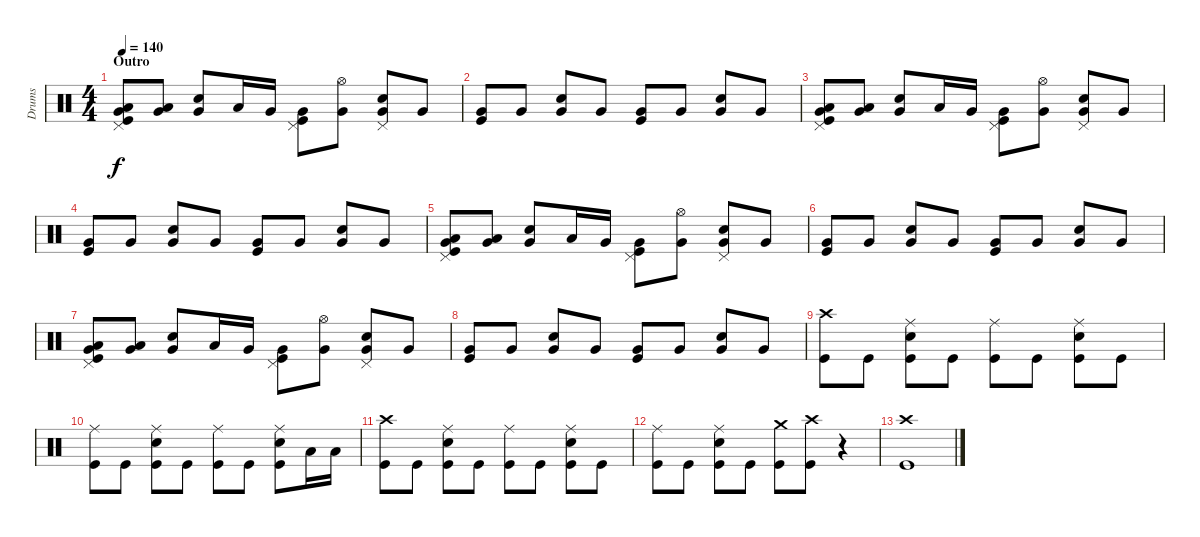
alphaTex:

\track ("Drums" "Drums") {instrument percussion}
\staff {score}
\articulation defaults
\ts (4 4)
\section ("" "Outro")
\tempo 140
\clef neutral
\ks c
("Pedal Hi-Hat (hit)" "Very Low Tom (hit)" "Low Tom (hit)" "Kick (hit)").8{dy f} ("Very Low Tom (hit)" "Low Tom (hit)").8 ("Very Low Tom (hit)" "Electric Snare (hit)").8 "Low Tom (hit)".16 "Very Low Tom (hit)".16 ("Pedal Hi-Hat (hit)" "Very Low Tom (hit)" "Kick (hit)").8 ("Hi-Hat (open)" "Very Low Tom (hit)").8 ("Pedal Hi-Hat (hit)" "Very Low Tom (hit)" "Electric Snare (hit)").8 "Very Low Tom (hit)".8 |
("Very Low Tom (hit)" "Kick (hit)").8 "Very Low Tom (hit)".8 ("Very Low Tom (hit)" "Snare (hit) 2").8 "Very Low Tom (hit)".8 ("Very Low Tom (hit)" "Kick (hit)").8 "Very Low Tom (hit)".8 ("Very Low Tom (hit)" "Snare (hit) 2").8 "Very Low Tom (hit)".8 |
("Pedal Hi-Hat (hit)" "Very Low Tom (hit)" "Low Tom (hit)" "Kick (hit)").8 ("Very Low Tom (hit)" "Low Tom (hit)").8 ("Very Low Tom (hit)" "Electric Snare (hit)").8 "Low Tom (hit)".16 "Very Low Tom (hit)".16 ("Pedal Hi-Hat (hit)" "Very Low Tom (hit)" "Kick (hit)").8 ("Hi-Hat (open)" "Very Low Tom (hit)").8 ("Pedal Hi-Hat (hit)" "Very Low Tom (hit)" "Electric Snare (hit)").8 "Very Low Tom (hit)".8 |
("Very Low Tom (hit)" "Kick (hit)").8 "Very Low Tom (hit)".8 ("Very Low Tom (hit)" "Snare (hit) 2").8 "Very Low Tom (hit)".8 ("Very Low Tom (hit)" "Kick (hit)").8 "Very Low Tom (hit)".8 ("Very Low Tom (hit)" "Snare (hit) 2").8 "Very Low Tom (hit)".8 |
("Pedal Hi-Hat (hit)" "Very Low Tom (hit)" "Low Tom (hit)" "Kick (hit)").8 ("Very Low Tom (hit)" "Low Tom (hit)").8 ("Very Low Tom (hit)" "Electric Snare (hit)").8 "Low Tom (hit)".16 "Very Low Tom (hit)".16 ("Pedal Hi-Hat (hit)" "Very Low Tom (hit)" "Kick (hit)").8 ("Hi-Hat (open)" "Very Low Tom (hit)").8 ("Pedal Hi-Hat (hit)" "Very Low Tom (hit)" "Electric Snare (hit)").8 "Very Low Tom (hit)".8 |
("Very Low Tom (hit)" "Kick (hit)").8 "Very Low Tom (hit)".8 ("Very Low Tom (hit)" "Snare (hit) 2").8 "Very Low Tom (hit)".8 ("Very Low Tom (hit)" "Kick (hit)").8 "Very Low Tom (hit)".8 ("Very Low Tom (hit)" "Snare (hit) 2").8 "Very Low Tom (hit)".8 |
("Pedal Hi-Hat (hit)" "Very Low Tom (hit)" "Low Tom (hit)" "Kick (hit)").8 ("Very Low Tom (hit)" "Low Tom (hit)").8 ("Very Low Tom (hit)" "Electric Snare (hit)").8 "Low Tom (hit)".16 "Very Low Tom (hit)".16 ("Pedal Hi-Hat (hit)" "Very Low Tom (hit)" "Kick (hit)").8 ("Hi-Hat (open)" "Very Low Tom (hit)").8 ("Pedal Hi-Hat (hit)" "Very Low Tom (hit)" "Electric Snare (hit)").8 "Very Low Tom (hit)".8 |
("Very Low Tom (hit)" "Kick (hit)").8 "Very Low Tom (hit)".8 ("Very Low Tom (hit)" "Snare (hit) 2").8 "Very Low Tom (hit)".8 ("Very Low Tom (hit)" "Kick (hit)").8 "Very Low Tom (hit)".8 ("Very Low Tom (hit)" "Snare (hit) 2").8 "Very Low Tom (hit)".8 |
("Crash high (hit)" "Kick (hit)").8 "Kick (hit)".8 ("Ride (middle)" "Snare (hit) 2" "Kick (hit)").8 "Kick (hit)".8 ("Ride (middle)" "Kick (hit)").8 "Kick (hit)".8 ("Ride (middle)" "Snare (hit) 2" "Kick (hit)").8 "Kick (hit)".8 |
("Ride (middle)" "Kick (hit)").8 "Kick (hit)".8 ("Ride (middle)" "Snare (hit) 2" "Kick (hit)").8 "Kick (hit)".8 ("Ride (middle)" "Kick (hit)").8 "Kick (hit)".8 ("Ride (middle)" "Snare (hit) 2" "Kick (hit)").8 "Low Tom (hit)".16 "Low Tom (hit)".16 |
("Crash high (hit)" "Kick (hit)").8 "Kick (hit)".8 ("Ride (middle)" "Snare (hit) 2" "Kick (hit)").8 "Kick (hit)".8 ("Ride (middle)" "Kick (hit)").8 "Kick (hit)".8 ("Ride (middle)" "Snare (hit) 2" "Kick (hit)").8 "Kick (hit)".8 |
("Ride (middle)" "Kick (hit)").8 "Kick (hit)".8 ("Ride (middle)" "Snare (hit) 2" "Kick (hit)").8 "Kick (hit)".8 ("Crash medium (hit)" "Kick (hit)").8 ("Crash high (hit)" "Kick (hit)").8 r.4 |
("Crash high (hit)" "Kick (hit)").1
